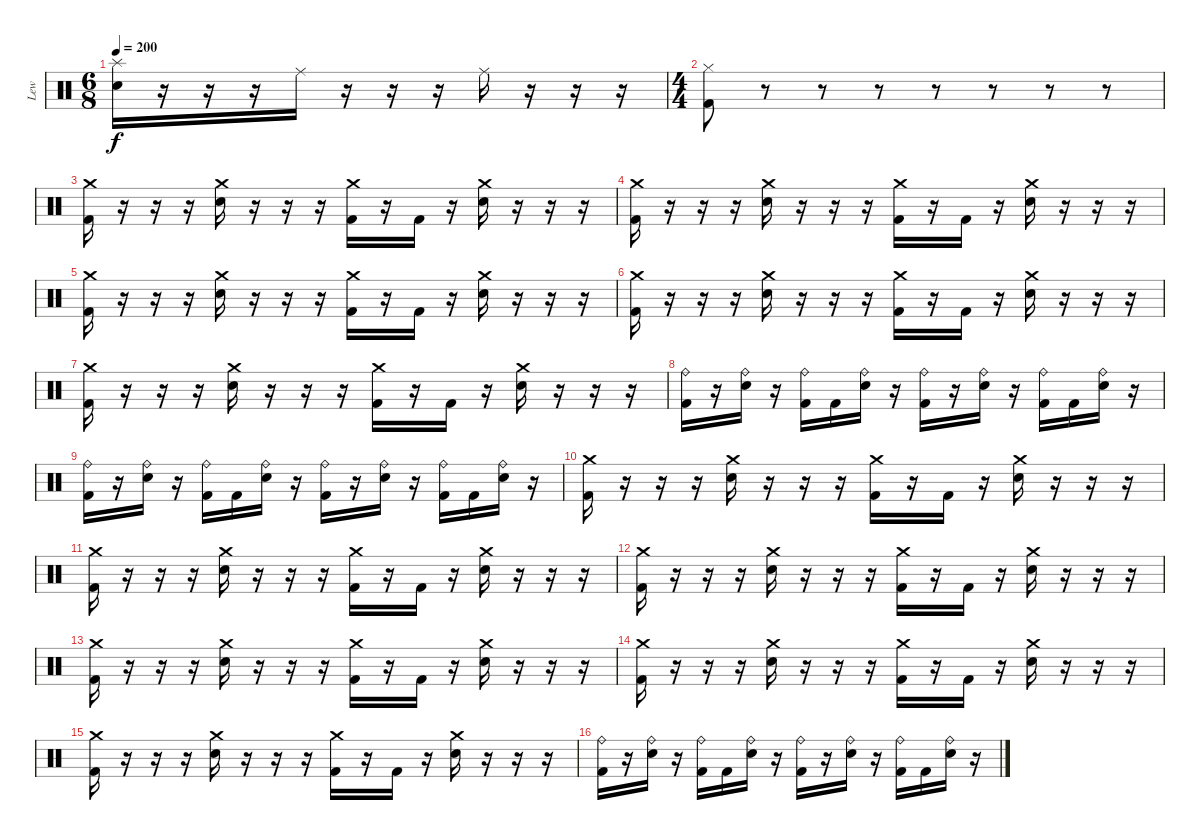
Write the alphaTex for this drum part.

\track ("Lew" "Lew") {instrument percussion}
\staff {score}
\articulation defaults
\ts (6 8)
\tempo 200
\clef neutral
\ks c
("Splash (hit)" "Electric Snare (hit)").16{dy f} r.16 r.16 r.16 "Ride (middle)".16 r.16 r.16 r.16 "Ride (middle)".16 r.16 r.16 r.16 |
\ts (4 4)
("Hi-Hat (closed)" "Kick (hit) 2").8 r.8 r.8 r.8 r.8 r.8 r.8 r.8 |
("Crash medium (hit)" "Kick (hit) 2").16 r.16 r.16 r.16 ("Crash medium (hit)" "Electric Snare (hit)").16 r.16 r.16 r.16 ("Crash medium (hit)" "Kick (hit) 2").16 r.16 "Kick (hit) 2".16 r.16 ("Crash medium (hit)" "Electric Snare (hit)").16 r.16 r.16 r.16 |
("Crash medium (hit)" "Kick (hit) 2").16 r.16 r.16 r.16 ("Crash medium (hit)" "Electric Snare (hit)").16 r.16 r.16 r.16 ("Crash medium (hit)" "Kick (hit) 2").16 r.16 "Kick (hit) 2".16 r.16 ("Crash medium (hit)" "Electric Snare (hit)").16 r.16 r.16 r.16 |
("Crash medium (hit)" "Kick (hit) 2").16 r.16 r.16 r.16 ("Crash medium (hit)" "Electric Snare (hit)").16 r.16 r.16 r.16 ("Crash medium (hit)" "Kick (hit) 2").16 r.16 "Kick (hit) 2".16 r.16 ("Crash medium (hit)" "Electric Snare (hit)").16 r.16 r.16 r.16 |
("Crash medium (hit)" "Kick (hit) 2").16 r.16 r.16 r.16 ("Crash medium (hit)" "Electric Snare (hit)").16 r.16 r.16 r.16 ("Crash medium (hit)" "Kick (hit) 2").16 r.16 "Kick (hit) 2".16 r.16 ("Crash medium (hit)" "Electric Snare (hit)").16 r.16 r.16 r.16 |
("Crash medium (hit)" "Kick (hit) 2").16 r.16 r.16 r.16 ("Crash medium (hit)" "Electric Snare (hit)").16 r.16 r.16 r.16 ("Crash medium (hit)" "Kick (hit) 2").16 r.16 "Kick (hit) 2".16 r.16 ("Crash medium (hit)" "Electric Snare (hit)").16 r.16 r.16 r.16 |
("Ride (bell)" "Kick (hit) 2").16 r.16 ("Ride (bell)" "Electric Snare (hit)").16 r.16 ("Ride (bell)" "Kick (hit) 2").16 "Kick (hit) 2".16 ("Ride (bell)" "Electric Snare (hit)").16 r.16 ("Ride (bell)" "Kick (hit) 2").16 r.16 ("Ride (bell)" "Electric Snare (hit)").16 r.16 ("Ride (bell)" "Kick (hit) 2").16 "Kick (hit) 2".16 ("Ride (bell)" "Electric Snare (hit)").16 r.16 |
("Ride (bell)" "Kick (hit) 2").16 r.16 ("Ride (bell)" "Electric Snare (hit)").16 r.16 ("Ride (bell)" "Kick (hit) 2").16 "Kick (hit) 2".16 ("Ride (bell)" "Electric Snare (hit)").16 r.16 ("Ride (bell)" "Kick (hit) 2").16 r.16 ("Ride (bell)" "Electric Snare (hit)").16 r.16 ("Ride (bell)" "Kick (hit) 2").16 "Kick (hit) 2".16 ("Ride (bell)" "Electric Snare (hit)").16 r.16 |
("Crash medium (hit)" "Kick (hit) 2").16 r.16 r.16 r.16 ("Crash medium (hit)" "Electric Snare (hit)").16 r.16 r.16 r.16 ("Crash medium (hit)" "Kick (hit) 2").16 r.16 "Kick (hit) 2".16 r.16 ("Crash medium (hit)" "Electric Snare (hit)").16 r.16 r.16 r.16 |
("Crash medium (hit)" "Kick (hit) 2").16 r.16 r.16 r.16 ("Crash medium (hit)" "Electric Snare (hit)").16 r.16 r.16 r.16 ("Crash medium (hit)" "Kick (hit) 2").16 r.16 "Kick (hit) 2".16 r.16 ("Crash medium (hit)" "Electric Snare (hit)").16 r.16 r.16 r.16 |
("Crash medium (hit)" "Kick (hit) 2").16 r.16 r.16 r.16 ("Crash medium (hit)" "Electric Snare (hit)").16 r.16 r.16 r.16 ("Crash medium (hit)" "Kick (hit) 2").16 r.16 "Kick (hit) 2".16 r.16 ("Crash medium (hit)" "Electric Snare (hit)").16 r.16 r.16 r.16 |
("Crash medium (hit)" "Kick (hit) 2").16 r.16 r.16 r.16 ("Crash medium (hit)" "Electric Snare (hit)").16 r.16 r.16 r.16 ("Crash medium (hit)" "Kick (hit) 2").16 r.16 "Kick (hit) 2".16 r.16 ("Crash medium (hit)" "Electric Snare (hit)").16 r.16 r.16 r.16 |
("Crash medium (hit)" "Kick (hit) 2").16 r.16 r.16 r.16 ("Crash medium (hit)" "Electric Snare (hit)").16 r.16 r.16 r.16 ("Crash medium (hit)" "Kick (hit) 2").16 r.16 "Kick (hit) 2".16 r.16 ("Crash medium (hit)" "Electric Snare (hit)").16 r.16 r.16 r.16 |
("Crash medium (hit)" "Kick (hit) 2").16 r.16 r.16 r.16 ("Crash medium (hit)" "Electric Snare (hit)").16 r.16 r.16 r.16 ("Crash medium (hit)" "Kick (hit) 2").16 r.16 "Kick (hit) 2".16 r.16 ("Crash medium (hit)" "Electric Snare (hit)").16 r.16 r.16 r.16 |
("Ride (bell)" "Kick (hit) 2").16 r.16 ("Ride (bell)" "Electric Snare (hit)").16 r.16 ("Ride (bell)" "Kick (hit) 2").16 "Kick (hit) 2".16 ("Ride (bell)" "Electric Snare (hit)").16 r.16 ("Ride (bell)" "Kick (hit) 2").16 r.16 ("Ride (bell)" "Electric Snare (hit)").16 r.16 ("Ride (bell)" "Kick (hit) 2").16 "Kick (hit) 2".16 ("Ride (bell)" "Electric Snare (hit)").16 r.16
